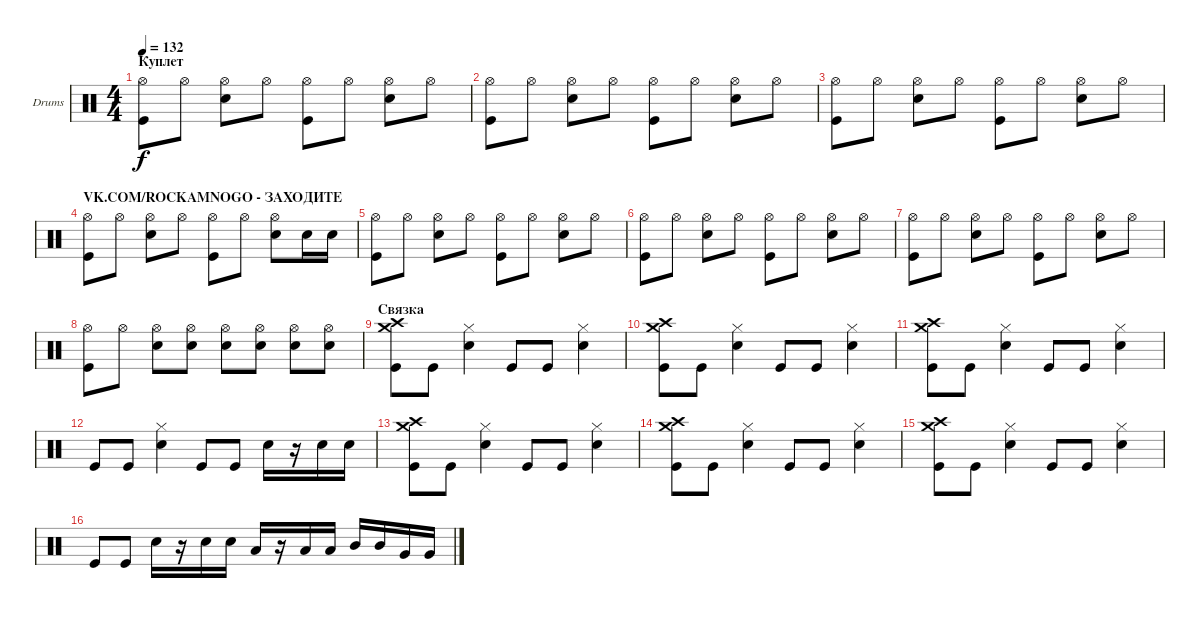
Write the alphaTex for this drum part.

\bracketExtendMode groupsimilarinstruments
\firstSystemTrackNameOrientation horizontal
\otherSystemsTrackNameOrientation horizontal
\track ("Александр Львов" "Drums") {instrument percussion}
\staff {score}
\articulation defaults
\ts (4 4)
\section ("" "Куплет")
\tempo 132
\clef neutral
\ks c
("Hi-Hat (open)" "Kick (hit)").8{dy f} "Hi-Hat (open)".8 ("Hi-Hat (open)" "Snare (hit) 2").8 "Hi-Hat (open)".8 ("Hi-Hat (open)" "Kick (hit)").8 "Hi-Hat (open)".8 ("Hi-Hat (open)" "Snare (hit) 2").8 "Hi-Hat (open)".8 |
("Hi-Hat (open)" "Kick (hit)").8 "Hi-Hat (open)".8 ("Hi-Hat (open)" "Snare (hit) 2").8 "Hi-Hat (open)".8 ("Hi-Hat (open)" "Kick (hit)").8 "Hi-Hat (open)".8 ("Hi-Hat (open)" "Snare (hit) 2").8 "Hi-Hat (open)".8 |
("Hi-Hat (open)" "Kick (hit)").8 "Hi-Hat (open)".8 ("Hi-Hat (open)" "Snare (hit) 2").8 "Hi-Hat (open)".8 ("Hi-Hat (open)" "Kick (hit)").8 "Hi-Hat (open)".8 ("Hi-Hat (open)" "Snare (hit) 2").8 "Hi-Hat (open)".8 |
\section ("" "VK.COM/ROCKAMNOGO - ЗАХОДИТЕ")
("Hi-Hat (open)" "Kick (hit)").8 "Hi-Hat (open)".8 ("Hi-Hat (open)" "Snare (hit) 2").8 "Hi-Hat (open)".8 ("Hi-Hat (open)" "Kick (hit)").8 "Hi-Hat (open)".8 ("Hi-Hat (open)" "Snare (hit) 2").8 "Snare (hit) 2".16 "Snare (hit) 2".16 |
("Hi-Hat (open)" "Kick (hit)").8 "Hi-Hat (open)".8 ("Hi-Hat (open)" "Snare (hit) 2").8 "Hi-Hat (open)".8 ("Hi-Hat (open)" "Kick (hit)").8 "Hi-Hat (open)".8 ("Hi-Hat (open)" "Snare (hit) 2").8 "Hi-Hat (open)".8 |
("Hi-Hat (open)" "Kick (hit)").8 "Hi-Hat (open)".8 ("Hi-Hat (open)" "Snare (hit) 2").8 "Hi-Hat (open)".8 ("Hi-Hat (open)" "Kick (hit)").8 "Hi-Hat (open)".8 ("Hi-Hat (open)" "Snare (hit) 2").8 "Hi-Hat (open)".8 |
("Hi-Hat (open)" "Kick (hit)").8 "Hi-Hat (open)".8 ("Hi-Hat (open)" "Snare (hit) 2").8 "Hi-Hat (open)".8 ("Hi-Hat (open)" "Kick (hit)").8 "Hi-Hat (open)".8 ("Hi-Hat (open)" "Snare (hit) 2").8 "Hi-Hat (open)".8 |
("Hi-Hat (open)" "Kick (hit)").8 "Hi-Hat (open)".8 ("Hi-Hat (open)" "Snare (hit) 2").8 ("Hi-Hat (open)" "Snare (hit) 2").8 ("Hi-Hat (open)" "Snare (hit) 2").8 ("Hi-Hat (open)" "Snare (hit) 2").8 ("Hi-Hat (open)" "Snare (hit) 2").8 ("Hi-Hat (open)" "Snare (hit) 2").8 |
\section ("" "Связка")
("Kick (hit)" "Crash medium (hit)" "Crash high (hit)").8 "Kick (hit)".8 ("Snare (hit) 2" "Hi-Hat (closed)").4 "Kick (hit)".8 "Kick (hit)".8 ("Snare (hit) 2" "Hi-Hat (closed)").4 |
("Kick (hit)" "Crash medium (hit)" "Crash high (hit)").8 "Kick (hit)".8 ("Snare (hit) 2" "Hi-Hat (closed)").4 "Kick (hit)".8 "Kick (hit)".8 ("Snare (hit) 2" "Hi-Hat (closed)").4 |
("Kick (hit)" "Crash medium (hit)" "Crash high (hit)").8 "Kick (hit)".8 ("Snare (hit) 2" "Hi-Hat (closed)").4 "Kick (hit)".8 "Kick (hit)".8 ("Snare (hit) 2" "Hi-Hat (closed)").4 |
"Kick (hit)".8 "Kick (hit)".8 ("Snare (hit) 2" "Hi-Hat (closed)").4 "Kick (hit)".8 "Kick (hit)".8 "Snare (hit) 2".16 r.16 "Snare (hit) 2".16 "Snare (hit) 2".16 |
("Kick (hit)" "Crash medium (hit)" "Crash high (hit)").8 "Kick (hit)".8 ("Snare (hit) 2" "Hi-Hat (closed)").4 "Kick (hit)".8 "Kick (hit)".8 ("Snare (hit) 2" "Hi-Hat (closed)").4 |
("Kick (hit)" "Crash medium (hit)" "Crash high (hit)").8 "Kick (hit)".8 ("Snare (hit) 2" "Hi-Hat (closed)").4 "Kick (hit)".8 "Kick (hit)".8 ("Snare (hit) 2" "Hi-Hat (closed)").4 |
("Kick (hit)" "Crash medium (hit)" "Crash high (hit)").8 "Kick (hit)".8 ("Snare (hit) 2" "Hi-Hat (closed)").4 "Kick (hit)".8 "Kick (hit)".8 ("Snare (hit) 2" "Hi-Hat (closed)").4 |
"Kick (hit)".8 "Kick (hit)".8 "Snare (hit) 2".16 r.16 "Snare (hit) 2".16 "Snare (hit) 2".16 "Low Tom (hit)".16 r.16 "Low Tom (hit)".16 "Low Tom (hit)".16 "Mid Tom (hit)".16 "Mid Tom (hit)".16 "Very Low Tom (hit)".16 "Very Low Tom (hit)".16
